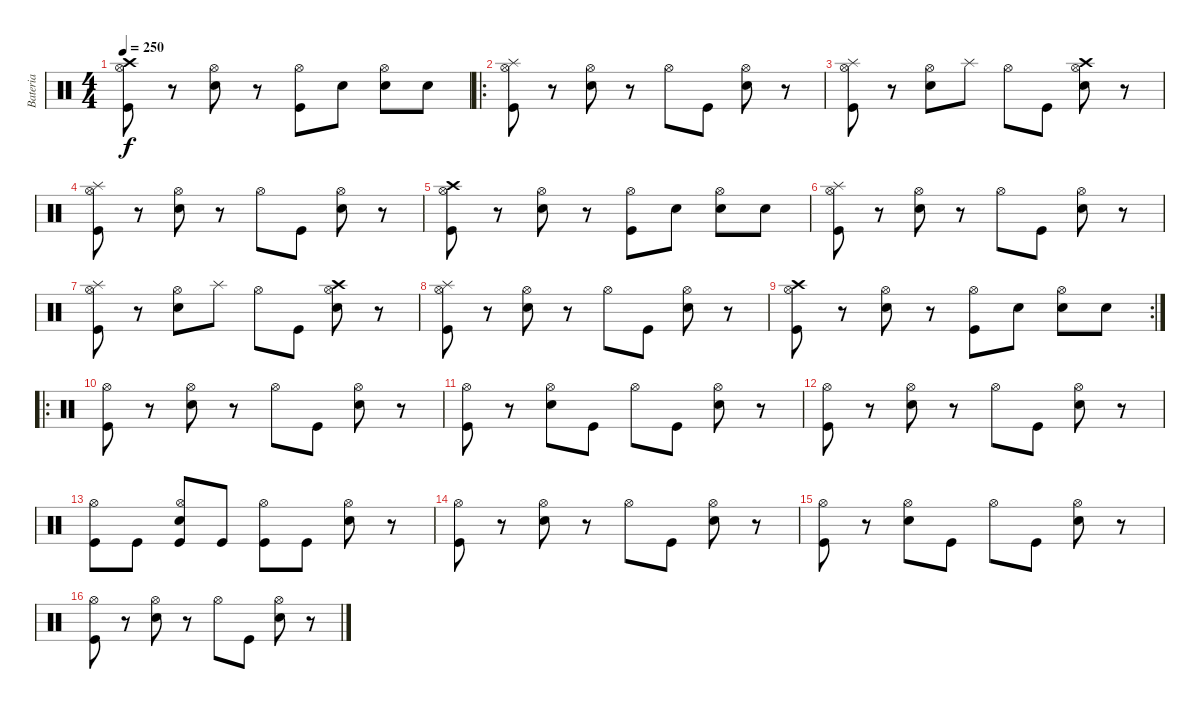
\track ("Bateria" "Bateria") {instrument percussion}
\staff {score}
\articulation defaults
\ts (4 4)
\tempo 250
\clef neutral
\ks c
("Kick (hit)" "Hi-Hat (open)" "Crash high (hit)").8{dy f} r.8 ("Electric Snare (hit)" "Hi-Hat (open)").8 r.8 ("Kick (hit)" "Hi-Hat (open)").8 "Electric Snare (hit)".8 ("Electric Snare (hit)" "Hi-Hat (open)").8 "Electric Snare (hit)".8 |
\ro
("Kick (hit)" "Hi-Hat (open)" "Splash (hit)").8 r.8 ("Electric Snare (hit)" "Hi-Hat (open)").8 r.8 "Hi-Hat (open)".8 "Kick (hit)".8 ("Electric Snare (hit)" "Hi-Hat (open)").8 r.8 |
("Kick (hit)" "Hi-Hat (open)" "Splash (hit)").8 r.8 ("Electric Snare (hit)" "Hi-Hat (open)").8 "Splash (hit)".8 "Hi-Hat (open)".8 "Kick (hit)".8 ("Electric Snare (hit)" "Hi-Hat (open)" "Crash high (hit)").8 r.8 |
("Kick (hit)" "Hi-Hat (open)" "Splash (hit)").8 r.8 ("Electric Snare (hit)" "Hi-Hat (open)").8 r.8 "Hi-Hat (open)".8 "Kick (hit)".8 ("Electric Snare (hit)" "Hi-Hat (open)").8 r.8 |
("Kick (hit)" "Hi-Hat (open)" "Crash high (hit)").8 r.8 ("Electric Snare (hit)" "Hi-Hat (open)").8 r.8 ("Kick (hit)" "Hi-Hat (open)").8 "Electric Snare (hit)".8 ("Electric Snare (hit)" "Hi-Hat (open)").8 "Electric Snare (hit)".8 |
("Kick (hit)" "Hi-Hat (open)" "Splash (hit)").8 r.8 ("Electric Snare (hit)" "Hi-Hat (open)").8 r.8 "Hi-Hat (open)".8 "Kick (hit)".8 ("Electric Snare (hit)" "Hi-Hat (open)").8 r.8 |
("Kick (hit)" "Hi-Hat (open)" "Splash (hit)").8 r.8 ("Electric Snare (hit)" "Hi-Hat (open)").8 "Splash (hit)".8 "Hi-Hat (open)".8 "Kick (hit)".8 ("Electric Snare (hit)" "Hi-Hat (open)" "Crash high (hit)").8 r.8 |
("Kick (hit)" "Hi-Hat (open)" "Splash (hit)").8 r.8 ("Electric Snare (hit)" "Hi-Hat (open)").8 r.8 "Hi-Hat (open)".8 "Kick (hit)".8 ("Electric Snare (hit)" "Hi-Hat (open)").8 r.8 |
\rc 2
("Kick (hit)" "Hi-Hat (open)" "Crash high (hit)").8 r.8 ("Electric Snare (hit)" "Hi-Hat (open)").8 r.8 ("Kick (hit)" "Hi-Hat (open)").8 "Electric Snare (hit)".8 ("Electric Snare (hit)" "Hi-Hat (open)").8 "Electric Snare (hit)".8 |
\ro
("Kick (hit)" "Hi-Hat (open)").8 r.8 ("Electric Snare (hit)" "Hi-Hat (open)").8 r.8 "Hi-Hat (open)".8 "Kick (hit)".8 ("Electric Snare (hit)" "Hi-Hat (open)").8 r.8 |
("Kick (hit)" "Hi-Hat (open)").8 r.8 ("Electric Snare (hit)" "Hi-Hat (open)").8 "Kick (hit)".8 "Hi-Hat (open)".8 "Kick (hit)".8 ("Electric Snare (hit)" "Hi-Hat (open)").8 r.8 |
("Kick (hit)" "Hi-Hat (open)").8 r.8 ("Electric Snare (hit)" "Hi-Hat (open)").8 r.8 "Hi-Hat (open)".8 "Kick (hit)".8 ("Electric Snare (hit)" "Hi-Hat (open)").8 r.8 |
("Kick (hit)" "Hi-Hat (open)").8 "Kick (hit)".8 ("Kick (hit)" "Electric Snare (hit)" "Hi-Hat (open)").8 "Kick (hit)".8 ("Kick (hit)" "Hi-Hat (open)").8 "Kick (hit)".8 ("Electric Snare (hit)" "Hi-Hat (open)").8 r.8 |
("Kick (hit)" "Hi-Hat (open)").8 r.8 ("Electric Snare (hit)" "Hi-Hat (open)").8 r.8 "Hi-Hat (open)".8 "Kick (hit)".8 ("Electric Snare (hit)" "Hi-Hat (open)").8 r.8 |
("Kick (hit)" "Hi-Hat (open)").8 r.8 ("Electric Snare (hit)" "Hi-Hat (open)").8 "Kick (hit)".8 "Hi-Hat (open)".8 "Kick (hit)".8 ("Electric Snare (hit)" "Hi-Hat (open)").8 r.8 |
("Kick (hit)" "Hi-Hat (open)").8 r.8 ("Electric Snare (hit)" "Hi-Hat (open)").8 r.8 "Hi-Hat (open)".8 "Kick (hit)".8 ("Electric Snare (hit)" "Hi-Hat (open)").8 r.8
